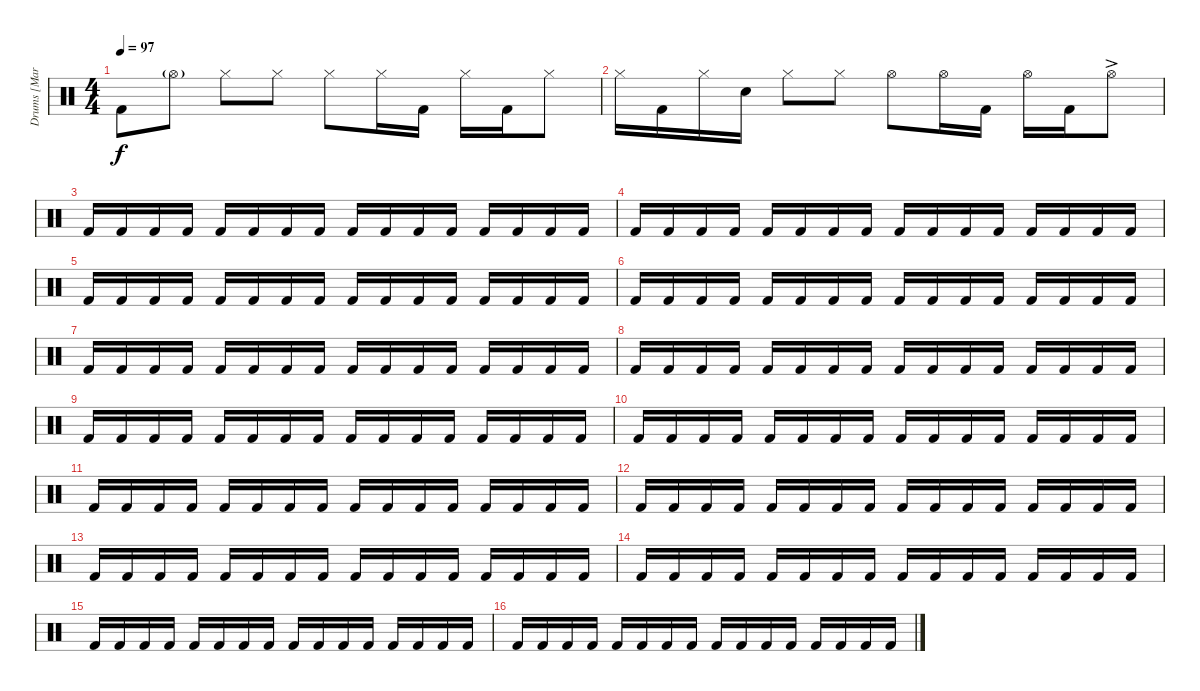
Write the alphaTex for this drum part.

\track ("Drums [Martin Lopez]" "Drums [Mar") {instrument percussion}
\staff {score}
\articulation defaults
\ts (4 4)
\tempo 97
\clef neutral
\ks c "Kick (hit) 2".8{dy f} "Hi-Hat (open)"{g}.8 "Hi-Hat (closed)".8 "Hi-Hat (closed)".8 "Hi-Hat (closed)".8 "Hi-Hat (closed)".16 "Kick (hit) 2".16 "Hi-Hat (closed)".16 "Kick (hit) 2".16 "Hi-Hat (closed)".8
|
"Hi-Hat (closed)".16 "Kick (hit) 2".16 "Hi-Hat (closed)".16 "Snare (hit) 2".16 "Hi-Hat (closed)".8 "Hi-Hat (closed)".8 "Hi-Hat (open)".8 "Hi-Hat (open)".16 "Kick (hit) 2".16 "Hi-Hat (open)".16 "Kick (hit) 2".16 "Hi-Hat (open)"{ac}.8 |
"Kick (hit) 2".16 "Kick (hit) 2".16 "Kick (hit) 2".16 "Kick (hit) 2".16 "Kick (hit) 2".16 "Kick (hit) 2".16 "Kick (hit) 2".16 "Kick (hit) 2".16 "Kick (hit) 2".16 "Kick (hit) 2".16 "Kick (hit) 2".16 "Kick (hit) 2".16 "Kick (hit) 2".16 "Kick (hit) 2".16 "Kick (hit) 2".16 "Kick (hit) 2".16 |
"Kick (hit) 2".16 "Kick (hit) 2".16 "Kick (hit) 2".16 "Kick (hit) 2".16 "Kick (hit) 2".16 "Kick (hit) 2".16 "Kick (hit) 2".16 "Kick (hit) 2".16 "Kick (hit) 2".16 "Kick (hit) 2".16 "Kick (hit) 2".16 "Kick (hit) 2".16 "Kick (hit) 2".16 "Kick (hit) 2".16 "Kick (hit) 2".16 "Kick (hit) 2".16 |
"Kick (hit) 2".16 "Kick (hit) 2".16 "Kick (hit) 2".16 "Kick (hit) 2".16 "Kick (hit) 2".16 "Kick (hit) 2".16 "Kick (hit) 2".16 "Kick (hit) 2".16 "Kick (hit) 2".16 "Kick (hit) 2".16 "Kick (hit) 2".16 "Kick (hit) 2".16 "Kick (hit) 2".16 "Kick (hit) 2".16 "Kick (hit) 2".16 "Kick (hit) 2".16 |
"Kick (hit) 2".16 "Kick (hit) 2".16 "Kick (hit) 2".16 "Kick (hit) 2".16 "Kick (hit) 2".16 "Kick (hit) 2".16 "Kick (hit) 2".16 "Kick (hit) 2".16 "Kick (hit) 2".16 "Kick (hit) 2".16 "Kick (hit) 2".16 "Kick (hit) 2".16 "Kick (hit) 2".16 "Kick (hit) 2".16 "Kick (hit) 2".16 "Kick (hit) 2".16 |
"Kick (hit) 2".16 "Kick (hit) 2".16 "Kick (hit) 2".16 "Kick (hit) 2".16 "Kick (hit) 2".16 "Kick (hit) 2".16 "Kick (hit) 2".16 "Kick (hit) 2".16 "Kick (hit) 2".16 "Kick (hit) 2".16 "Kick (hit) 2".16 "Kick (hit) 2".16 "Kick (hit) 2".16 "Kick (hit) 2".16 "Kick (hit) 2".16 "Kick (hit) 2".16 |
"Kick (hit) 2".16 "Kick (hit) 2".16 "Kick (hit) 2".16 "Kick (hit) 2".16 "Kick (hit) 2".16 "Kick (hit) 2".16 "Kick (hit) 2".16 "Kick (hit) 2".16 "Kick (hit) 2".16 "Kick (hit) 2".16 "Kick (hit) 2".16 "Kick (hit) 2".16 "Kick (hit) 2".16 "Kick (hit) 2".16 "Kick (hit) 2".16 "Kick (hit) 2".16 |
"Kick (hit) 2".16 "Kick (hit) 2".16 "Kick (hit) 2".16 "Kick (hit) 2".16 "Kick (hit) 2".16 "Kick (hit) 2".16 "Kick (hit) 2".16 "Kick (hit) 2".16 "Kick (hit) 2".16 "Kick (hit) 2".16 "Kick (hit) 2".16 "Kick (hit) 2".16 "Kick (hit) 2".16 "Kick (hit) 2".16 "Kick (hit) 2".16 "Kick (hit) 2".16 |
"Kick (hit) 2".16 "Kick (hit) 2".16 "Kick (hit) 2".16 "Kick (hit) 2".16 "Kick (hit) 2".16 "Kick (hit) 2".16 "Kick (hit) 2".16 "Kick (hit) 2".16 "Kick (hit) 2".16 "Kick (hit) 2".16 "Kick (hit) 2".16 "Kick (hit) 2".16 "Kick (hit) 2".16 "Kick (hit) 2".16 "Kick (hit) 2".16 "Kick (hit) 2".16 |
"Kick (hit) 2".16 "Kick (hit) 2".16 "Kick (hit) 2".16 "Kick (hit) 2".16 "Kick (hit) 2".16 "Kick (hit) 2".16 "Kick (hit) 2".16 "Kick (hit) 2".16 "Kick (hit) 2".16 "Kick (hit) 2".16 "Kick (hit) 2".16 "Kick (hit) 2".16 "Kick (hit) 2".16 "Kick (hit) 2".16 "Kick (hit) 2".16 "Kick (hit) 2".16 |
"Kick (hit) 2".16 "Kick (hit) 2".16 "Kick (hit) 2".16 "Kick (hit) 2".16 "Kick (hit) 2".16 "Kick (hit) 2".16 "Kick (hit) 2".16 "Kick (hit) 2".16 "Kick (hit) 2".16 "Kick (hit) 2".16 "Kick (hit) 2".16 "Kick (hit) 2".16 "Kick (hit) 2".16 "Kick (hit) 2".16 "Kick (hit) 2".16 "Kick (hit) 2".16 |
"Kick (hit) 2".16 "Kick (hit) 2".16 "Kick (hit) 2".16 "Kick (hit) 2".16 "Kick (hit) 2".16 "Kick (hit) 2".16 "Kick (hit) 2".16 "Kick (hit) 2".16 "Kick (hit) 2".16 "Kick (hit) 2".16 "Kick (hit) 2".16 "Kick (hit) 2".16 "Kick (hit) 2".16 "Kick (hit) 2".16 "Kick (hit) 2".16 "Kick (hit) 2".16 |
"Kick (hit) 2".16 "Kick (hit) 2".16 "Kick (hit) 2".16 "Kick (hit) 2".16 "Kick (hit) 2".16 "Kick (hit) 2".16 "Kick (hit) 2".16 "Kick (hit) 2".16 "Kick (hit) 2".16 "Kick (hit) 2".16 "Kick (hit) 2".16 "Kick (hit) 2".16 "Kick (hit) 2".16 "Kick (hit) 2".16 "Kick (hit) 2".16 "Kick (hit) 2".16 |
"Kick (hit) 2".16 "Kick (hit) 2".16 "Kick (hit) 2".16 "Kick (hit) 2".16 "Kick (hit) 2".16 "Kick (hit) 2".16 "Kick (hit) 2".16 "Kick (hit) 2".16 "Kick (hit) 2".16 "Kick (hit) 2".16 "Kick (hit) 2".16 "Kick (hit) 2".16 "Kick (hit) 2".16 "Kick (hit) 2".16 "Kick (hit) 2".16 "Kick (hit) 2".16 |
"Kick (hit) 2".16 "Kick (hit) 2".16 "Kick (hit) 2".16 "Kick (hit) 2".16 "Kick (hit) 2".16 "Kick (hit) 2".16 "Kick (hit) 2".16 "Kick (hit) 2".16 "Kick (hit) 2".16 "Kick (hit) 2".16 "Kick (hit) 2".16 "Kick (hit) 2".16 "Kick (hit) 2".16 "Kick (hit) 2".16 "Kick (hit) 2".16 "Kick (hit) 2".16
